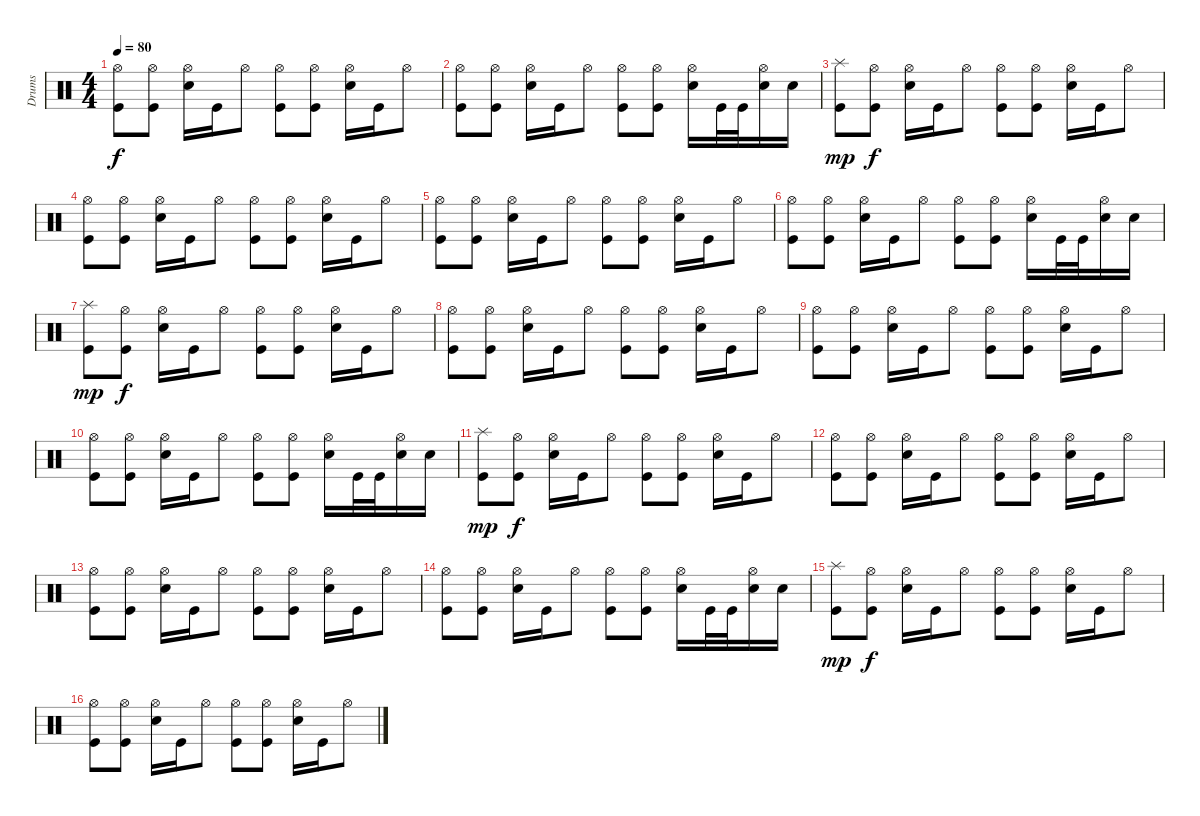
\track ("Drums" "Drums") {instrument percussion}
\staff {score}
\articulation defaults
\ts (4 4)
\tempo 80
\clef neutral
\ks c
("Kick (hit)" "Hi-Hat (open)").8{dy f} ("Kick (hit)" "Hi-Hat (open)").8 ("Electric Snare (hit)" "Hi-Hat (open)").16 "Kick (hit)".16 "Hi-Hat (open)".8 ("Kick (hit)" "Hi-Hat (open)").8 ("Kick (hit)" "Hi-Hat (open)").8 ("Electric Snare (hit)" "Hi-Hat (open)").16 "Kick (hit)".16 "Hi-Hat (open)".8 |
("Kick (hit)" "Hi-Hat (open)").8 ("Kick (hit)" "Hi-Hat (open)").8 ("Electric Snare (hit)" "Hi-Hat (open)").16 "Kick (hit)".16 "Hi-Hat (open)".8 ("Kick (hit)" "Hi-Hat (open)").8 ("Kick (hit)" "Hi-Hat (open)").8 ("Electric Snare (hit)" "Hi-Hat (open)").16 "Kick (hit)".32 "Kick (hit)".32 ("Electric Snare (hit)" "Hi-Hat (open)").16 "Electric Snare (hit)".16 |
("Kick (hit)" "Splash (hit)").8{dy mp} ("Kick (hit)" "Hi-Hat (open)").8{dy f} ("Electric Snare (hit)" "Hi-Hat (open)").16 "Kick (hit)".16 "Hi-Hat (open)".8 ("Kick (hit)" "Hi-Hat (open)").8 ("Kick (hit)" "Hi-Hat (open)").8 ("Electric Snare (hit)" "Hi-Hat (open)").16 "Kick (hit)".16 "Hi-Hat (open)".8 |
("Kick (hit)" "Hi-Hat (open)").8 ("Kick (hit)" "Hi-Hat (open)").8 ("Electric Snare (hit)" "Hi-Hat (open)").16 "Kick (hit)".16 "Hi-Hat (open)".8 ("Kick (hit)" "Hi-Hat (open)").8 ("Kick (hit)" "Hi-Hat (open)").8 ("Electric Snare (hit)" "Hi-Hat (open)").16 "Kick (hit)".16 "Hi-Hat (open)".8 |
("Kick (hit)" "Hi-Hat (open)").8 ("Kick (hit)" "Hi-Hat (open)").8 ("Electric Snare (hit)" "Hi-Hat (open)").16 "Kick (hit)".16 "Hi-Hat (open)".8 ("Kick (hit)" "Hi-Hat (open)").8 ("Kick (hit)" "Hi-Hat (open)").8 ("Electric Snare (hit)" "Hi-Hat (open)").16 "Kick (hit)".16 "Hi-Hat (open)".8 |
("Kick (hit)" "Hi-Hat (open)").8 ("Kick (hit)" "Hi-Hat (open)").8 ("Electric Snare (hit)" "Hi-Hat (open)").16 "Kick (hit)".16 "Hi-Hat (open)".8 ("Kick (hit)" "Hi-Hat (open)").8 ("Kick (hit)" "Hi-Hat (open)").8 ("Electric Snare (hit)" "Hi-Hat (open)").16 "Kick (hit)".32 "Kick (hit)".32 ("Electric Snare (hit)" "Hi-Hat (open)").16 "Electric Snare (hit)".16 |
("Kick (hit)" "Splash (hit)").8{dy mp} ("Kick (hit)" "Hi-Hat (open)").8{dy f} ("Electric Snare (hit)" "Hi-Hat (open)").16 "Kick (hit)".16 "Hi-Hat (open)".8 ("Kick (hit)" "Hi-Hat (open)").8 ("Kick (hit)" "Hi-Hat (open)").8 ("Electric Snare (hit)" "Hi-Hat (open)").16 "Kick (hit)".16 "Hi-Hat (open)".8 |
("Kick (hit)" "Hi-Hat (open)").8 ("Kick (hit)" "Hi-Hat (open)").8 ("Electric Snare (hit)" "Hi-Hat (open)").16 "Kick (hit)".16 "Hi-Hat (open)".8 ("Kick (hit)" "Hi-Hat (open)").8 ("Kick (hit)" "Hi-Hat (open)").8 ("Electric Snare (hit)" "Hi-Hat (open)").16 "Kick (hit)".16 "Hi-Hat (open)".8 |
("Kick (hit)" "Hi-Hat (open)").8 ("Kick (hit)" "Hi-Hat (open)").8 ("Electric Snare (hit)" "Hi-Hat (open)").16 "Kick (hit)".16 "Hi-Hat (open)".8 ("Kick (hit)" "Hi-Hat (open)").8 ("Kick (hit)" "Hi-Hat (open)").8 ("Electric Snare (hit)" "Hi-Hat (open)").16 "Kick (hit)".16 "Hi-Hat (open)".8 |
("Kick (hit)" "Hi-Hat (open)").8 ("Kick (hit)" "Hi-Hat (open)").8 ("Electric Snare (hit)" "Hi-Hat (open)").16 "Kick (hit)".16 "Hi-Hat (open)".8 ("Kick (hit)" "Hi-Hat (open)").8 ("Kick (hit)" "Hi-Hat (open)").8 ("Electric Snare (hit)" "Hi-Hat (open)").16 "Kick (hit)".32 "Kick (hit)".32 ("Electric Snare (hit)" "Hi-Hat (open)").16 "Electric Snare (hit)".16 |
("Kick (hit)" "Splash (hit)").8{dy mp} ("Kick (hit)" "Hi-Hat (open)").8{dy f} ("Electric Snare (hit)" "Hi-Hat (open)").16 "Kick (hit)".16 "Hi-Hat (open)".8 ("Kick (hit)" "Hi-Hat (open)").8 ("Kick (hit)" "Hi-Hat (open)").8 ("Electric Snare (hit)" "Hi-Hat (open)").16 "Kick (hit)".16 "Hi-Hat (open)".8 |
("Kick (hit)" "Hi-Hat (open)").8 ("Kick (hit)" "Hi-Hat (open)").8 ("Electric Snare (hit)" "Hi-Hat (open)").16 "Kick (hit)".16 "Hi-Hat (open)".8 ("Kick (hit)" "Hi-Hat (open)").8 ("Kick (hit)" "Hi-Hat (open)").8 ("Electric Snare (hit)" "Hi-Hat (open)").16 "Kick (hit)".16 "Hi-Hat (open)".8 |
("Kick (hit)" "Hi-Hat (open)").8 ("Kick (hit)" "Hi-Hat (open)").8 ("Electric Snare (hit)" "Hi-Hat (open)").16 "Kick (hit)".16 "Hi-Hat (open)".8 ("Kick (hit)" "Hi-Hat (open)").8 ("Kick (hit)" "Hi-Hat (open)").8 ("Electric Snare (hit)" "Hi-Hat (open)").16 "Kick (hit)".16 "Hi-Hat (open)".8 |
("Kick (hit)" "Hi-Hat (open)").8 ("Kick (hit)" "Hi-Hat (open)").8 ("Electric Snare (hit)" "Hi-Hat (open)").16 "Kick (hit)".16 "Hi-Hat (open)".8 ("Kick (hit)" "Hi-Hat (open)").8 ("Kick (hit)" "Hi-Hat (open)").8 ("Electric Snare (hit)" "Hi-Hat (open)").16 "Kick (hit)".32 "Kick (hit)".32 ("Electric Snare (hit)" "Hi-Hat (open)").16 "Electric Snare (hit)".16 |
("Kick (hit)" "Splash (hit)").8{dy mp} ("Kick (hit)" "Hi-Hat (open)").8{dy f} ("Electric Snare (hit)" "Hi-Hat (open)").16 "Kick (hit)".16 "Hi-Hat (open)".8 ("Kick (hit)" "Hi-Hat (open)").8 ("Kick (hit)" "Hi-Hat (open)").8 ("Electric Snare (hit)" "Hi-Hat (open)").16 "Kick (hit)".16 "Hi-Hat (open)".8 |
("Kick (hit)" "Hi-Hat (open)").8 ("Kick (hit)" "Hi-Hat (open)").8 ("Electric Snare (hit)" "Hi-Hat (open)").16 "Kick (hit)".16 "Hi-Hat (open)".8 ("Kick (hit)" "Hi-Hat (open)").8 ("Kick (hit)" "Hi-Hat (open)").8 ("Electric Snare (hit)" "Hi-Hat (open)").16 "Kick (hit)".16 "Hi-Hat (open)".8
